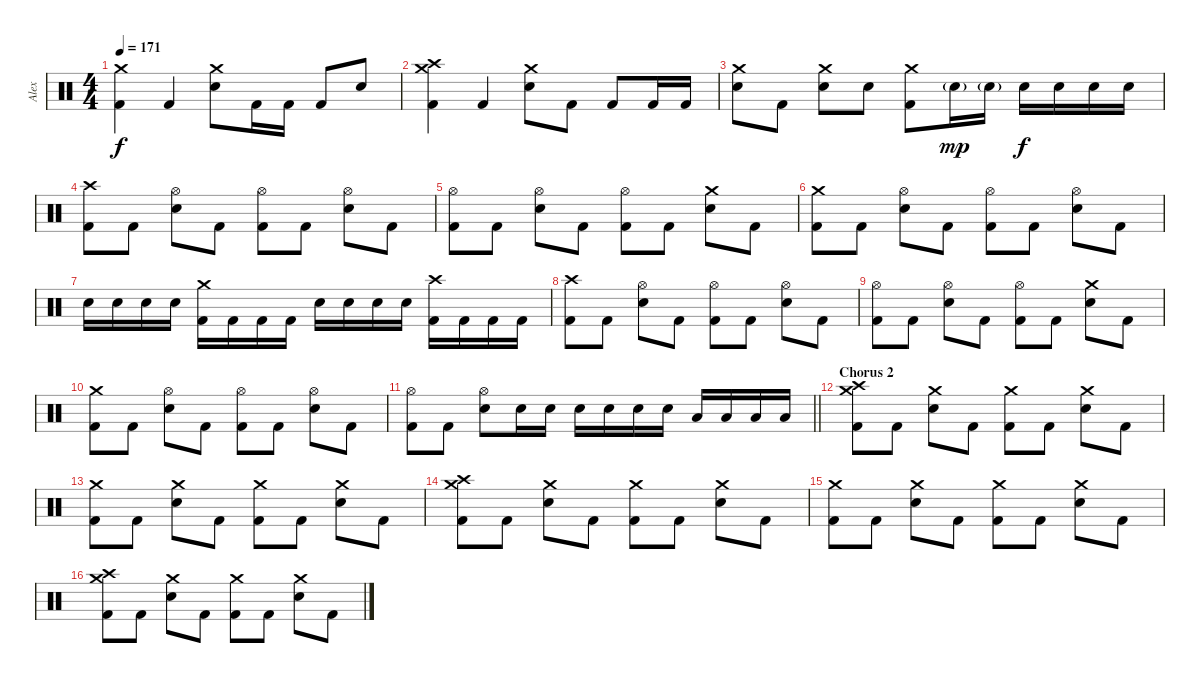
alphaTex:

\track ("Alex" "Alex") {instrument percussion}
\staff
\articulation defaults
\ts (4 4)
\tempo 171
\clef neutral
\ks c
("Crash medium (hit)" "Kick (hit) 2").4{dy f} "Kick (hit) 2".4 ("Crash medium (hit)" "Electric Snare (hit)").8 "Kick (hit) 2".16 "Kick (hit) 2".16 "Kick (hit) 2".8 "Electric Snare (hit)".8 |
("Crash medium (hit)" "Crash high (hit)" "Kick (hit) 2").4 "Kick (hit) 2".4 ("Crash medium (hit)" "Electric Snare (hit)").8 "Kick (hit) 2".8 "Kick (hit) 2".8 "Kick (hit) 2".16 "Kick (hit) 2".16 |
("Crash medium (hit)" "Electric Snare (hit)").8 "Kick (hit) 2".8 ("Crash medium (hit)" "Electric Snare (hit)").8 "Electric Snare (hit)".8 ("Crash medium (hit)" "Kick (hit) 2").8 "Electric Snare (hit)"{g}.16{dy mp} "Electric Snare (hit)"{g}.16 "Electric Snare (hit)".16{dy f} "Electric Snare (hit)".16 "Electric Snare (hit)".16 "Electric Snare (hit)".16 |
("Crash high (hit)" "Kick (hit) 2").8 "Kick (hit) 2".8 ("Hi-Hat (open)" "Electric Snare (hit)").8 "Kick (hit) 2".8 ("Hi-Hat (open)" "Kick (hit) 2").8 "Kick (hit) 2".8 ("Hi-Hat (open)" "Electric Snare (hit)").8 "Kick (hit) 2".8 |
("Hi-Hat (open)" "Kick (hit) 2").8 "Kick (hit) 2".8 ("Hi-Hat (open)" "Electric Snare (hit)").8 "Kick (hit) 2".8 ("Hi-Hat (open)" "Kick (hit) 2").8 "Kick (hit) 2".8 ("Crash medium (hit)" "Electric Snare (hit)").8 "Kick (hit) 2".8 |
("Crash medium (hit)" "Kick (hit) 2").8 "Kick (hit) 2".8 ("Hi-Hat (open)" "Electric Snare (hit)").8 "Kick (hit) 2".8 ("Hi-Hat (open)" "Kick (hit) 2").8 "Kick (hit) 2".8 ("Hi-Hat (open)" "Electric Snare (hit)").8 "Kick (hit) 2".8 |
"Electric Snare (hit)".16 "Electric Snare (hit)".16 "Electric Snare (hit)".16 "Electric Snare (hit)".16 ("Crash medium (hit)" "Kick (hit) 2").16 "Kick (hit) 2".16 "Kick (hit) 2".16 "Kick (hit) 2".16 "Electric Snare (hit)".16 "Electric Snare (hit)".16 "Electric Snare (hit)".16 "Electric Snare (hit)".16 ("Crash high (hit)" "Kick (hit) 2").16 "Kick (hit) 2".16 "Kick (hit) 2".16 "Kick (hit) 2".16 |
("Crash high (hit)" "Kick (hit) 2").8 "Kick (hit) 2".8 ("Hi-Hat (open)" "Electric Snare (hit)").8 "Kick (hit) 2".8 ("Hi-Hat (open)" "Kick (hit) 2").8 "Kick (hit) 2".8 ("Hi-Hat (open)" "Electric Snare (hit)").8 "Kick (hit) 2".8 |
("Hi-Hat (open)" "Kick (hit) 2").8 "Kick (hit) 2".8 ("Hi-Hat (open)" "Electric Snare (hit)").8 "Kick (hit) 2".8 ("Hi-Hat (open)" "Kick (hit) 2").8 "Kick (hit) 2".8 ("Crash medium (hit)" "Electric Snare (hit)").8 "Kick (hit) 2".8 |
("Crash medium (hit)" "Kick (hit) 2").8 "Kick (hit) 2".8 ("Hi-Hat (open)" "Electric Snare (hit)").8 "Kick (hit) 2".8 ("Hi-Hat (open)" "Kick (hit) 2").8 "Kick (hit) 2".8 ("Hi-Hat (open)" "Electric Snare (hit)").8 "Kick (hit) 2".8 |
\barLineRight lightlight
("Hi-Hat (open)" "Kick (hit) 2").8 "Kick (hit) 2".8 ("Hi-Hat (open)" "Electric Snare (hit)").8 "Electric Snare (hit)".16 "Electric Snare (hit)".16 "Electric Snare (hit)".16 "Electric Snare (hit)".16 "Electric Snare (hit)".16 "Electric Snare (hit)".16 "Low Floor Tom (hit)".16 "Low Floor Tom (hit)".16 "Low Floor Tom (hit)".16 "Low Floor Tom (hit)".16 |
\section ("" "Chorus 2")
("Crash medium (hit)" "Crash high (hit)" "Kick (hit) 2").8 "Kick (hit) 2".8 ("Crash medium (hit)" "Electric Snare (hit)").8 "Kick (hit) 2".8 ("Crash medium (hit)" "Kick (hit) 2").8 "Kick (hit) 2".8 ("Crash medium (hit)" "Electric Snare (hit)").8 "Kick (hit) 2".8 |
("Crash medium (hit)" "Kick (hit) 2").8 "Kick (hit) 2".8 ("Crash medium (hit)" "Electric Snare (hit)").8 "Kick (hit) 2".8 ("Crash medium (hit)" "Kick (hit) 2").8 "Kick (hit) 2".8 ("Crash medium (hit)" "Electric Snare (hit)").8 "Kick (hit) 2".8 |
("Crash medium (hit)" "Crash high (hit)" "Kick (hit) 2").8 "Kick (hit) 2".8 ("Crash medium (hit)" "Electric Snare (hit)").8 "Kick (hit) 2".8 ("Crash medium (hit)" "Kick (hit) 2").8 "Kick (hit) 2".8 ("Crash medium (hit)" "Electric Snare (hit)").8 "Kick (hit) 2".8 |
("Crash medium (hit)" "Kick (hit) 2").8 "Kick (hit) 2".8 ("Crash medium (hit)" "Electric Snare (hit)").8 "Kick (hit) 2".8 ("Crash medium (hit)" "Kick (hit) 2").8 "Kick (hit) 2".8 ("Crash medium (hit)" "Electric Snare (hit)").8 "Kick (hit) 2".8 |
("Crash medium (hit)" "Crash high (hit)" "Kick (hit) 2").8 "Kick (hit) 2".8 ("Crash medium (hit)" "Electric Snare (hit)").8 "Kick (hit) 2".8 ("Crash medium (hit)" "Kick (hit) 2").8 "Kick (hit) 2".8 ("Crash medium (hit)" "Electric Snare (hit)").8 "Kick (hit) 2".8
